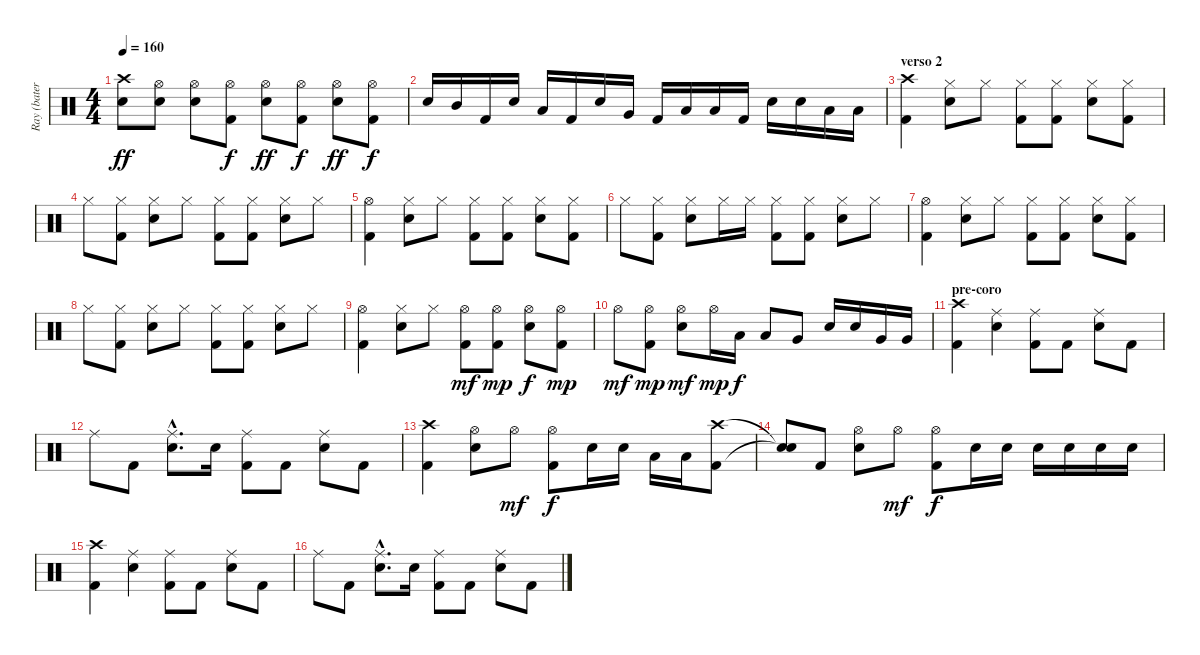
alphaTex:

\track ("Ray (batería)" "Ray (bater") {instrument percussion}
\staff {score}
\articulation defaults
\ts (4 4)
\tempo 160
\clef neutral
\ks c
("Crash high (hit)" "Snare (hit) 2").8{dy ff} ("Hi-Hat (open)" "Snare (hit) 2").8 ("Hi-Hat (open)" "Snare (hit) 2").8 ("Hi-Hat (open)" "Kick (hit) 2").8{dy f} ("Hi-Hat (open)" "Snare (hit) 2").8{dy ff} ("Hi-Hat (open)" "Kick (hit) 2").8{dy f} ("Hi-Hat (open)" "Snare (hit) 2").8{dy ff} ("Hi-Hat (open)" "Kick (hit) 2").8{dy f} |
"Snare (hit) 2".16 "Mid Tom (hit)".16 "Kick (hit) 2".16 "Snare (hit) 2".16 "Low Tom (hit)".16 "Kick (hit) 2".16 "Snare (hit) 2".16 "Very Low Tom (hit)".16 "Kick (hit) 2".16 "Low Tom (hit)".16 "Low Tom (hit)".16 "Kick (hit) 2".16 "Snare (hit) 2".16 "Snare (hit) 2".16 "Low Floor Tom (hit)".16 "Low Floor Tom (hit)".16 |
\section ("" "verso 2")
("Crash high (hit)" "Kick (hit) 2").4 ("Hi-Hat (closed)" "Snare (hit) 2").8 "Hi-Hat (closed)".8 ("Hi-Hat (closed)" "Kick (hit) 2").8 ("Hi-Hat (closed)" "Kick (hit) 2").8 ("Hi-Hat (closed)" "Snare (hit) 2").8 ("Hi-Hat (closed)" "Kick (hit) 2").8 |
"Hi-Hat (closed)".8 ("Hi-Hat (closed)" "Kick (hit) 2").8 ("Hi-Hat (closed)" "Snare (hit) 2").8 "Hi-Hat (closed)".8 ("Hi-Hat (closed)" "Kick (hit) 2").8 ("Hi-Hat (closed)" "Kick (hit) 2").8 ("Hi-Hat (closed)" "Snare (hit) 2").8 "Hi-Hat (closed)".8 |
("Hi-Hat (open)" "Kick (hit) 2").4 ("Hi-Hat (closed)" "Snare (hit) 2").8 "Hi-Hat (closed)".8 ("Hi-Hat (closed)" "Kick (hit) 2").8 ("Hi-Hat (closed)" "Kick (hit) 2").8 ("Hi-Hat (closed)" "Snare (hit) 2").8 ("Hi-Hat (closed)" "Kick (hit) 2").8 |
"Hi-Hat (closed)".8 ("Hi-Hat (closed)" "Kick (hit) 2").8 ("Hi-Hat (closed)" "Snare (hit) 2").8 "Hi-Hat (closed)".16 "Hi-Hat (closed)".16 ("Hi-Hat (closed)" "Kick (hit) 2").8 ("Hi-Hat (closed)" "Kick (hit) 2").8 ("Hi-Hat (closed)" "Snare (hit) 2").8 "Hi-Hat (closed)".8 |
("Hi-Hat (open)" "Kick (hit) 2").4 ("Hi-Hat (closed)" "Snare (hit) 2").8 "Hi-Hat (closed)".8 ("Hi-Hat (closed)" "Kick (hit) 2").8 ("Hi-Hat (closed)" "Kick (hit) 2").8 ("Hi-Hat (closed)" "Snare (hit) 2").8 ("Hi-Hat (closed)" "Kick (hit) 2").8 |
"Hi-Hat (closed)".8 ("Hi-Hat (closed)" "Kick (hit) 2").8 ("Hi-Hat (closed)" "Snare (hit) 2").8 "Hi-Hat (closed)".8 ("Hi-Hat (closed)" "Kick (hit) 2").8 ("Hi-Hat (closed)" "Kick (hit) 2").8 ("Hi-Hat (closed)" "Snare (hit) 2").8 "Hi-Hat (closed)".8 |
("Hi-Hat (open)" "Kick (hit) 2").4 ("Hi-Hat (closed)" "Snare (hit) 2").8 "Hi-Hat (closed)".8 ("Hi-Hat (open)" "Kick (hit) 2").8{dy mf} ("Hi-Hat (open)" "Kick (hit) 2").8{dy mp} ("Hi-Hat (open)" "Snare (hit) 2").8{dy f} ("Hi-Hat (open)" "Kick (hit) 2").8{dy mp} |
"Hi-Hat (open)".8{dy mf} ("Hi-Hat (open)" "Kick (hit) 2").8{dy mp} ("Hi-Hat (open)" "Snare (hit) 2").8{dy mf} "Hi-Hat (open)".16{dy mp} "Low Tom (hit)".16{dy f} "Low Tom (hit)".8 "Very Low Tom (hit)".8 "Snare (hit) 2".16 "Snare (hit) 2".16 "Very Low Tom (hit)".16 "Very Low Tom (hit)".16 |
\section ("" "pre-coro")
("Crash high (hit)" "Kick (hit) 2").4 ("Ride (middle)" "Snare (hit) 2").4 ("Ride (middle)" "Kick (hit) 2").8 "Kick (hit) 2".8 ("Ride (middle)" "Snare (hit) 2").8 "Kick (hit) 2".8 |
"Ride (middle)".8 "Kick (hit) 2".8 ("Ride (middle)"{hac} "Snare (hit) 2"{hac}).8{d} "Snare (hit) 2".16 ("Ride (middle)" "Kick (hit) 2").8 "Kick (hit) 2".8 ("Ride (middle)" "Snare (hit) 2").8 "Kick (hit) 2".8 |
("Crash high (hit)" "Kick (hit) 2").4 ("Hi-Hat (open)" "Snare (hit) 2").8 "Hi-Hat (open)".8{dy mf} ("Hi-Hat (open)" "Kick (hit) 2").8{dy f} "Snare (hit) 2".16 "Snare (hit) 2".16 "Low Tom (hit)".16 "Low Tom (hit)".16 ("Crash high (hit)" "Kick (hit) 2").8 |
("Snare (hit)"{t} "Snare (hit)"{t}).8 "Kick (hit) 2".8 ("Hi-Hat (open)" "Snare (hit) 2").8 "Hi-Hat (open)".8{dy mf} ("Hi-Hat (open)" "Kick (hit) 2").8{dy f} "Snare (hit) 2".16 "Snare (hit) 2".16 "Snare (hit) 2".16 "Snare (hit) 2".16 "Snare (hit) 2".16 "Snare (hit) 2".16 |
("Crash high (hit)" "Kick (hit) 2").4 ("Ride (middle)" "Snare (hit) 2").4 ("Ride (middle)" "Kick (hit) 2").8 "Kick (hit) 2".8 ("Ride (middle)" "Snare (hit) 2").8 "Kick (hit) 2".8 |
"Ride (middle)".8 "Kick (hit) 2".8 ("Ride (middle)"{hac} "Snare (hit) 2"{hac}).8{d} "Snare (hit) 2".16 ("Ride (middle)" "Kick (hit) 2").8 "Kick (hit) 2".8 ("Ride (middle)" "Snare (hit) 2").8 "Kick (hit) 2".8
